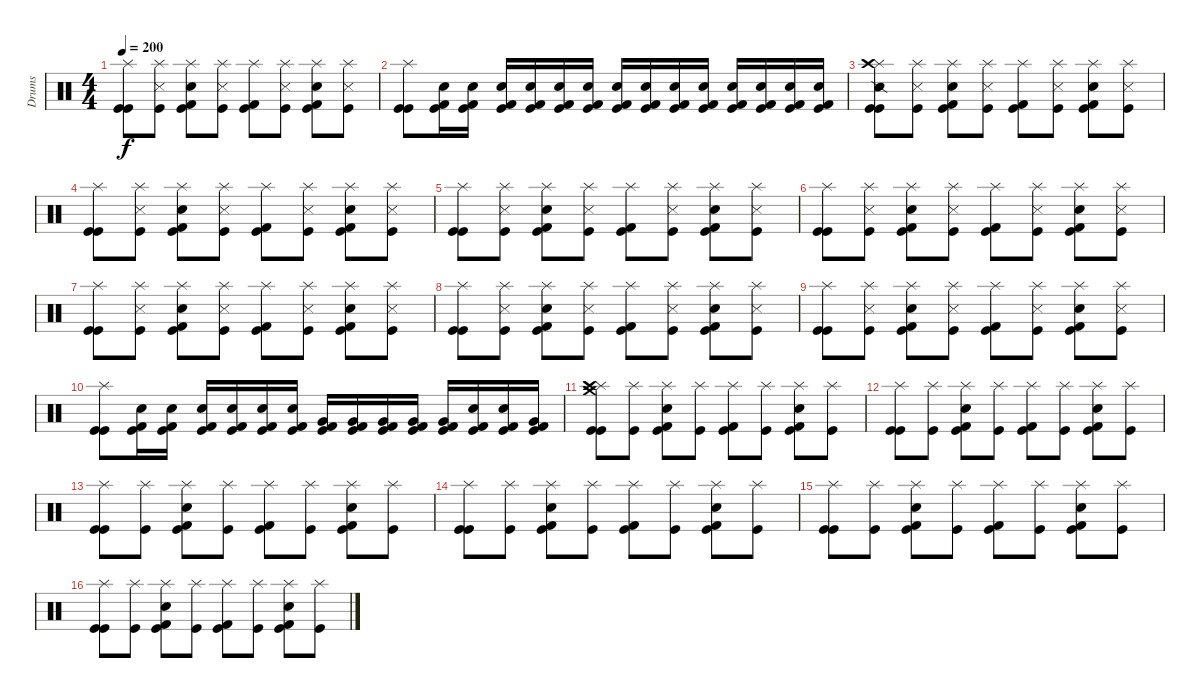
\track ("Drums" "Drums") {instrument percussion}
\staff {score}
\articulation defaults
\ts (4 4)
\tempo 200
\clef neutral
\ks c
("Splash (hit)" "Kick (hit)" "Kick (hit)").8{dy f} ("Splash (hit)" "Snare (side stick) 3" "Kick (hit)").8 ("Splash (hit)" "Snare (hit) 2" "Kick (hit) 2" "Kick (hit)").8 ("Splash (hit)" "Snare (side stick) 3" "Kick (hit)").8 ("Splash (hit)" "Kick (hit) 2" "Kick (hit)").8 ("Splash (hit)" "Snare (side stick) 3" "Kick (hit)").8 ("Splash (hit)" "Snare (hit) 2" "Kick (hit) 2" "Kick (hit)").8 ("Splash (hit)" "Snare (side stick) 3" "Kick (hit)").8 |
("Splash (hit)" "Kick (hit)" "Kick (hit)").8 ("Snare (hit) 2" "Kick (hit) 2" "Kick (hit)").16 ("Snare (hit) 2" "Kick (hit) 2" "Kick (hit)").16 ("Snare (hit) 2" "Kick (hit) 2" "Kick (hit)").16 ("Snare (hit) 2" "Kick (hit) 2" "Kick (hit)").16 ("Electric Snare (hit)" "Kick (hit) 2" "Kick (hit)").16 ("Electric Snare (hit)" "Kick (hit) 2" "Kick (hit)").16 ("Electric Snare (hit)" "Kick (hit) 2" "Kick (hit)").16 ("Electric Snare (hit)" "Kick (hit) 2" "Kick (hit)").16 ("Electric Snare (hit)" "Kick (hit) 2" "Kick (hit)").16 ("Electric Snare (hit)" "Kick (hit) 2" "Kick (hit)").16 ("Snare (hit) 2" "Kick (hit) 2" "Kick (hit)").16 ("Snare (hit) 2" "Kick (hit) 2" "Kick (hit)").16 ("Snare (hit) 2" "Kick (hit) 2" "Kick (hit)").16 ("Snare (hit) 2" "Kick (hit) 2" "Kick (hit)").16 |
("Splash (hit)" "Crash high (hit)" "Snare (side stick) 2" "Kick (hit)" "Kick (hit)").8 ("Splash (hit)" "Snare (side stick) 3" "Kick (hit)").8 ("Splash (hit)" "Snare (hit) 2" "Kick (hit) 2" "Kick (hit)").8 ("Splash (hit)" "Snare (side stick) 3" "Kick (hit)").8 ("Splash (hit)" "Kick (hit) 2" "Kick (hit)").8 ("Splash (hit)" "Snare (side stick) 3" "Kick (hit)").8 ("Splash (hit)" "Snare (hit) 2" "Kick (hit) 2" "Kick (hit)").8 ("Splash (hit)" "Snare (side stick) 3" "Kick (hit)").8 |
("Splash (hit)" "Kick (hit)" "Kick (hit)").8 ("Splash (hit)" "Snare (side stick) 3" "Kick (hit)").8 ("Splash (hit)" "Snare (hit) 2" "Kick (hit) 2" "Kick (hit)").8 ("Splash (hit)" "Snare (side stick) 3" "Kick (hit)").8 ("Splash (hit)" "Kick (hit) 2" "Kick (hit)").8 ("Splash (hit)" "Snare (side stick) 3" "Kick (hit)").8 ("Splash (hit)" "Snare (hit) 2" "Kick (hit) 2" "Kick (hit)").8 ("Splash (hit)" "Snare (side stick) 3" "Kick (hit)").8 |
("Splash (hit)" "Kick (hit)" "Kick (hit)").8 ("Splash (hit)" "Snare (side stick) 3" "Kick (hit)").8 ("Splash (hit)" "Snare (hit) 2" "Kick (hit) 2" "Kick (hit)").8 ("Splash (hit)" "Snare (side stick) 3" "Kick (hit)").8 ("Splash (hit)" "Kick (hit) 2" "Kick (hit)").8 ("Splash (hit)" "Snare (side stick) 3" "Kick (hit)").8 ("Splash (hit)" "Snare (hit) 2" "Kick (hit) 2" "Kick (hit)").8 ("Splash (hit)" "Snare (side stick) 3" "Kick (hit)").8 |
("Splash (hit)" "Kick (hit)" "Kick (hit)").8 ("Splash (hit)" "Snare (side stick) 3" "Kick (hit)").8 ("Splash (hit)" "Snare (hit) 2" "Kick (hit) 2" "Kick (hit)").8 ("Splash (hit)" "Snare (side stick) 3" "Kick (hit)").8 ("Splash (hit)" "Kick (hit) 2" "Kick (hit)").8 ("Splash (hit)" "Snare (side stick) 3" "Kick (hit)").8 ("Splash (hit)" "Snare (hit) 2" "Kick (hit) 2" "Kick (hit)").8 ("Splash (hit)" "Snare (side stick) 3" "Kick (hit)").8 |
("Splash (hit)" "Kick (hit)" "Kick (hit)").8 ("Splash (hit)" "Snare (side stick) 3" "Kick (hit)").8 ("Splash (hit)" "Snare (hit) 2" "Kick (hit) 2" "Kick (hit)").8 ("Splash (hit)" "Snare (side stick) 3" "Kick (hit)").8 ("Splash (hit)" "Kick (hit) 2" "Kick (hit)").8 ("Splash (hit)" "Snare (side stick) 3" "Kick (hit)").8 ("Splash (hit)" "Snare (hit) 2" "Kick (hit) 2" "Kick (hit)").8 ("Splash (hit)" "Snare (side stick) 3" "Kick (hit)").8 |
("Splash (hit)" "Kick (hit)" "Kick (hit)").8 ("Splash (hit)" "Snare (side stick) 3" "Kick (hit)").8 ("Splash (hit)" "Snare (hit) 2" "Kick (hit) 2" "Kick (hit)").8 ("Splash (hit)" "Snare (side stick) 3" "Kick (hit)").8 ("Splash (hit)" "Kick (hit) 2" "Kick (hit)").8 ("Splash (hit)" "Snare (side stick) 3" "Kick (hit)").8 ("Splash (hit)" "Snare (hit) 2" "Kick (hit) 2" "Kick (hit)").8 ("Splash (hit)" "Snare (side stick) 3" "Kick (hit)").8 |
("Splash (hit)" "Kick (hit)" "Kick (hit)").8 ("Splash (hit)" "Snare (side stick) 3" "Kick (hit)").8 ("Splash (hit)" "Snare (hit) 2" "Kick (hit) 2" "Kick (hit)").8 ("Splash (hit)" "Snare (side stick) 3" "Kick (hit)").8 ("Splash (hit)" "Kick (hit) 2" "Kick (hit)").8 ("Splash (hit)" "Snare (side stick) 3" "Kick (hit)").8 ("Splash (hit)" "Snare (hit) 2" "Kick (hit) 2" "Kick (hit)").8 ("Splash (hit)" "Snare (side stick) 3" "Kick (hit)").8 |
("Splash (hit)" "Kick (hit)" "Kick (hit)").8 ("Snare (hit) 2" "Kick (hit) 2" "Kick (hit)").16 ("Snare (hit) 2" "Kick (hit) 2" "Kick (hit)").16 ("Snare (hit) 2" "Kick (hit) 2" "Kick (hit)").16 ("Snare (hit) 2" "Kick (hit) 2" "Kick (hit)").16 ("Snare (hit) 2" "Kick (hit) 2" "Kick (hit)").16 ("Snare (hit) 2" "Kick (hit) 2" "Kick (hit)").16 ("Very Low Tom (hit)" "Kick (hit) 2" "Kick (hit)").16 ("Very Low Tom (hit)" "Kick (hit) 2" "Kick (hit)").16 ("Very Low Tom (hit)" "Kick (hit) 2" "Kick (hit)").16 ("Very Low Tom (hit)" "Kick (hit) 2" "Kick (hit)").16 ("Very Low Tom (hit)" "Kick (hit) 2" "Kick (hit)").16 ("Electric Snare (hit)" "Kick (hit) 2" "Kick (hit)").16 ("Electric Snare (hit)" "Kick (hit) 2" "Kick (hit)").16 ("Very Low Tom (hit)" "Kick (hit) 2" "Kick (hit)").16 |
("Splash (hit)" "Crash high (hit)" "Crash medium (hit)" "Kick (hit)" "Kick (hit)").8 ("Splash (hit)" "Kick (hit)").8 ("Splash (hit)" "Snare (hit) 2" "Kick (hit) 2" "Kick (hit)").8 ("Splash (hit)" "Kick (hit)").8 ("Splash (hit)" "Kick (hit) 2" "Kick (hit)").8 ("Splash (hit)" "Kick (hit)").8 ("Splash (hit)" "Snare (hit) 2" "Kick (hit) 2" "Kick (hit)").8 ("Splash (hit)" "Kick (hit)").8 |
("Splash (hit)" "Kick (hit)" "Kick (hit)").8 ("Splash (hit)" "Kick (hit)").8 ("Splash (hit)" "Snare (hit) 2" "Kick (hit) 2" "Kick (hit)").8 ("Splash (hit)" "Kick (hit)").8 ("Splash (hit)" "Kick (hit) 2" "Kick (hit)").8 ("Splash (hit)" "Kick (hit)").8 ("Splash (hit)" "Snare (hit) 2" "Kick (hit) 2" "Kick (hit)").8 ("Splash (hit)" "Kick (hit)").8 |
("Splash (hit)" "Kick (hit)" "Kick (hit)").8 ("Splash (hit)" "Kick (hit)").8 ("Splash (hit)" "Snare (hit) 2" "Kick (hit) 2" "Kick (hit)").8 ("Splash (hit)" "Kick (hit)").8 ("Splash (hit)" "Kick (hit) 2" "Kick (hit)").8 ("Splash (hit)" "Kick (hit)").8 ("Splash (hit)" "Snare (hit) 2" "Kick (hit) 2" "Kick (hit)").8 ("Splash (hit)" "Kick (hit)").8 |
("Splash (hit)" "Kick (hit)" "Kick (hit)").8 ("Splash (hit)" "Kick (hit)").8 ("Splash (hit)" "Snare (hit) 2" "Kick (hit) 2" "Kick (hit)").8 ("Splash (hit)" "Kick (hit)").8 ("Splash (hit)" "Kick (hit) 2" "Kick (hit)").8 ("Splash (hit)" "Kick (hit)").8 ("Splash (hit)" "Snare (hit) 2" "Kick (hit) 2" "Kick (hit)").8 ("Splash (hit)" "Kick (hit)").8 |
("Splash (hit)" "Kick (hit)" "Kick (hit)").8 ("Splash (hit)" "Kick (hit)").8 ("Splash (hit)" "Snare (hit) 2" "Kick (hit) 2" "Kick (hit)").8 ("Splash (hit)" "Kick (hit)").8 ("Splash (hit)" "Kick (hit) 2" "Kick (hit)").8 ("Splash (hit)" "Kick (hit)").8 ("Splash (hit)" "Snare (hit) 2" "Kick (hit) 2" "Kick (hit)").8 ("Splash (hit)" "Kick (hit)").8 |
("Splash (hit)" "Kick (hit)" "Kick (hit)").8 ("Splash (hit)" "Kick (hit)").8 ("Splash (hit)" "Snare (hit) 2" "Kick (hit) 2" "Kick (hit)").8 ("Splash (hit)" "Kick (hit)").8 ("Splash (hit)" "Kick (hit) 2" "Kick (hit)").8 ("Splash (hit)" "Kick (hit)").8 ("Splash (hit)" "Snare (hit) 2" "Kick (hit) 2" "Kick (hit)").8 ("Splash (hit)" "Kick (hit)").8
